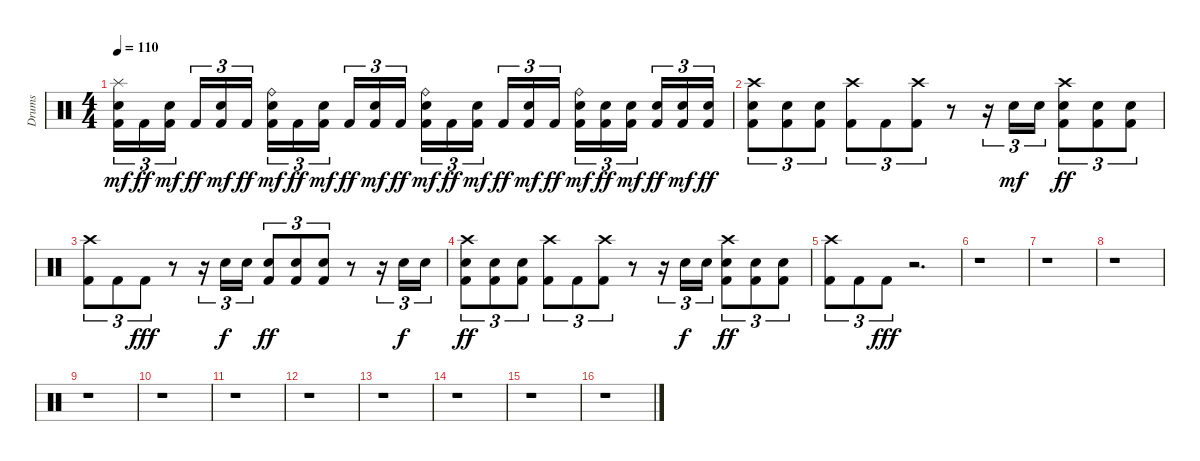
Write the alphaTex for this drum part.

\track ("Drums" "Drums") {instrument percussion}
\staff {score}
\articulation defaults
\ts (4 4)
\tempo 110
\clef neutral
\ks c
("Kick (hit) 2" "Electric Snare (hit)" "Splash (hit)").16{tu (3 2) dy mf} "Kick (hit) 2".16{tu (3 2) dy ff} ("Kick (hit) 2" "Electric Snare (hit)").16{tu (3 2) dy mf beam splitsecondary} "Kick (hit) 2".16{tu (3 2) dy ff} ("Kick (hit) 2" "Electric Snare (hit)").16{tu (3 2) dy mf} "Kick (hit) 2".16{tu (3 2) dy ff} ("Kick (hit) 2" "Electric Snare (hit)" "Ride (bell)").16{tu (3 2) dy mf} "Kick (hit) 2".16{tu (3 2) dy ff} ("Kick (hit) 2" "Electric Snare (hit)").16{tu (3 2) dy mf beam splitsecondary} "Kick (hit) 2".16{tu (3 2) dy ff} ("Kick (hit) 2" "Electric Snare (hit)").16{tu (3 2) dy mf} "Kick (hit) 2".16{tu (3 2) dy ff} ("Kick (hit) 2" "Electric Snare (hit)" "Ride (bell)").16{tu (3 2) dy mf} "Kick (hit) 2".16{tu (3 2) dy ff} ("Kick (hit) 2" "Electric Snare (hit)").16{tu (3 2) dy mf beam splitsecondary} "Kick (hit) 2".16{tu (3 2) dy ff} ("Kick (hit) 2" "Electric Snare (hit)").16{tu (3 2) dy mf} "Kick (hit) 2".16{tu (3 2) dy ff} ("Kick (hit) 2" "Electric Snare (hit)" "Ride (bell)").16{tu (3 2) dy mf} ("Kick (hit) 2" "Electric Snare (hit)").16{tu (3 2) dy ff} ("Kick (hit) 2" "Electric Snare (hit)").16{tu (3 2) dy mf beam splitsecondary} ("Kick (hit) 2" "Electric Snare (hit)").16{tu (3 2) dy ff} ("Kick (hit) 2" "Electric Snare (hit)").16{tu (3 2) dy mf} ("Kick (hit) 2" "Electric Snare (hit)").16{tu (3 2) dy ff} |
("Kick (hit) 2" "Electric Snare (hit)" "Crash high (hit)").8{tu (3 2)} ("Kick (hit) 2" "Electric Snare (hit)").8{tu (3 2)} ("Kick (hit) 2" "Electric Snare (hit)").8{tu (3 2)} ("Kick (hit) 2" "Crash high (hit)").8{tu (3 2)} "Kick (hit) 2".8{tu (3 2)} ("Kick (hit) 2" "Crash high (hit)").8{tu (3 2)} r.8 r.16{tu (3 2)} "Electric Snare (hit)".16{tu (3 2) dy mf} "Electric Snare (hit)".16{tu (3 2)} ("Kick (hit) 2" "Electric Snare (hit)" "Crash high (hit)").8{tu (3 2) dy ff} ("Kick (hit) 2" "Electric Snare (hit)").8{tu (3 2)} ("Kick (hit) 2" "Electric Snare (hit)").8{tu (3 2)} |
("Kick (hit) 2" "Crash high (hit)").8{tu (3 2)} "Kick (hit) 2".8{tu (3 2)} "Kick (hit) 2".8{tu (3 2) dy fff} r.8 r.16{tu (3 2)} "Electric Snare (hit)".16{tu (3 2) dy f} "Electric Snare (hit)".16{tu (3 2)} ("Kick (hit) 2" "Electric Snare (hit)").8{tu (3 2) dy ff} ("Kick (hit) 2" "Electric Snare (hit)").8{tu (3 2)} ("Kick (hit) 2" "Electric Snare (hit)").8{tu (3 2)} r.8 r.16{tu (3 2)} "Electric Snare (hit)".16{tu (3 2) dy f} "Electric Snare (hit)".16{tu (3 2)} |
("Kick (hit) 2" "Electric Snare (hit)" "Crash high (hit)").8{tu (3 2) dy ff} ("Kick (hit) 2" "Electric Snare (hit)").8{tu (3 2)} ("Kick (hit) 2" "Electric Snare (hit)").8{tu (3 2)} ("Kick (hit) 2" "Crash high (hit)").8{tu (3 2)} "Kick (hit) 2".8{tu (3 2)} ("Kick (hit) 2" "Crash high (hit)").8{tu (3 2)} r.8 r.16{tu (3 2)} "Electric Snare (hit)".16{tu (3 2) dy f} "Electric Snare (hit)".16{tu (3 2)} ("Kick (hit) 2" "Electric Snare (hit)" "Crash high (hit)").8{tu (3 2) dy ff} ("Kick (hit) 2" "Electric Snare (hit)").8{tu (3 2)} ("Kick (hit) 2" "Electric Snare (hit)").8{tu (3 2)} |
("Kick (hit) 2" "Crash high (hit)").8{tu (3 2)} "Kick (hit) 2".8{tu (3 2)} "Kick (hit) 2".8{tu (3 2) dy fff} r.2{d} |
r.1 |
r.1 |
r.1 |
r.1 |
r.1 |
r.1 |
r.1 |
r.1 |
r.1 |
r.1 |
r.1
